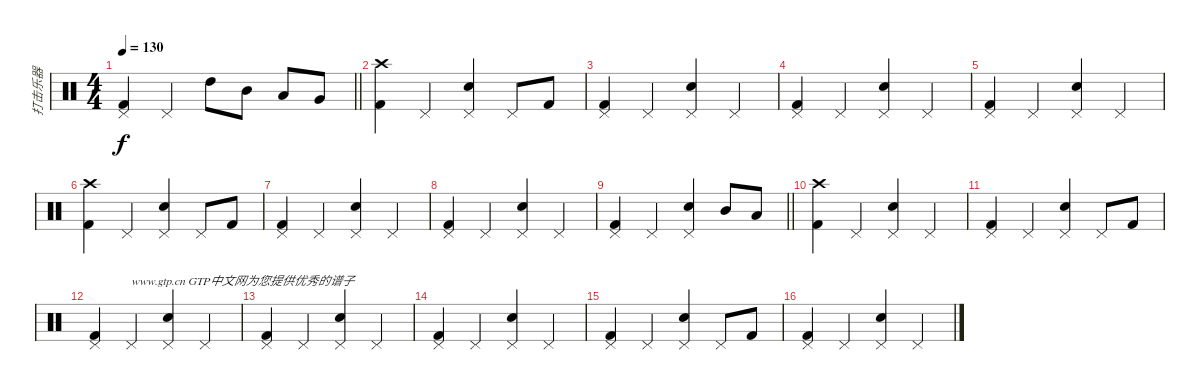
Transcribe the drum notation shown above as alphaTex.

\track ("打击乐器" "打击乐器") {instrument percussion}
\staff {score}
\articulation defaults
\ts (4 4)
\tempo 130
\clef neutral
\barLineRight lightlight
\ks c
("Pedal Hi-Hat (hit)" "Kick (hit) 2").4{dy f} "Pedal Hi-Hat (hit)".4 "High Tom (hit)".8 "Mid Tom (hit)".8 "Low Tom (hit)".8 "Very Low Tom (hit)".8 |
("Crash high (hit)" "Kick (hit) 2").4 "Pedal Hi-Hat (hit)".4 ("Pedal Hi-Hat (hit)" "Snare (hit) 2").4 "Pedal Hi-Hat (hit)".8 "Kick (hit) 2".8 |
("Pedal Hi-Hat (hit)" "Kick (hit) 2").4 "Pedal Hi-Hat (hit)".4 ("Pedal Hi-Hat (hit)" "Snare (hit) 2").4 "Pedal Hi-Hat (hit)".4 |
("Pedal Hi-Hat (hit)" "Kick (hit) 2").4 "Pedal Hi-Hat (hit)".4 ("Pedal Hi-Hat (hit)" "Snare (hit) 2").4 "Pedal Hi-Hat (hit)".4 |
("Pedal Hi-Hat (hit)" "Kick (hit) 2").4 "Pedal Hi-Hat (hit)".4 ("Pedal Hi-Hat (hit)" "Snare (hit) 2").4 "Pedal Hi-Hat (hit)".4 |
("Crash high (hit)" "Kick (hit) 2").4 "Pedal Hi-Hat (hit)".4 ("Pedal Hi-Hat (hit)" "Snare (hit) 2").4 "Pedal Hi-Hat (hit)".8 "Kick (hit) 2".8 |
("Pedal Hi-Hat (hit)" "Kick (hit) 2").4 "Pedal Hi-Hat (hit)".4 ("Pedal Hi-Hat (hit)" "Snare (hit) 2").4 "Pedal Hi-Hat (hit)".4 |
("Pedal Hi-Hat (hit)" "Kick (hit) 2").4 "Pedal Hi-Hat (hit)".4 ("Pedal Hi-Hat (hit)" "Snare (hit) 2").4 "Pedal Hi-Hat (hit)".4 |
\barLineRight lightlight
("Pedal Hi-Hat (hit)" "Kick (hit) 2").4 "Pedal Hi-Hat (hit)".4 ("Pedal Hi-Hat (hit)" "Snare (hit) 2").4 "Mid Tom (hit)".8 "Low Tom (hit)".8 |
("Crash high (hit)" "Kick (hit) 2").4 "Pedal Hi-Hat (hit)".4 ("Pedal Hi-Hat (hit)" "Snare (hit) 2").4 "Pedal Hi-Hat (hit)".4 |
("Pedal Hi-Hat (hit)" "Kick (hit) 2").4 "Pedal Hi-Hat (hit)".4 ("Pedal Hi-Hat (hit)" "Snare (hit) 2").4 "Pedal Hi-Hat (hit)".8 "Kick (hit) 2".8 |
("Pedal Hi-Hat (hit)" "Kick (hit) 2").4 "Pedal Hi-Hat (hit)".4{txt "www.gtp.cn GTP中文网为您提供优秀的谱子"} ("Pedal Hi-Hat (hit)" "Snare (hit) 2").4 "Pedal Hi-Hat (hit)".4 |
("Pedal Hi-Hat (hit)" "Kick (hit) 2").4 "Pedal Hi-Hat (hit)".4 ("Pedal Hi-Hat (hit)" "Snare (hit) 2").4 "Pedal Hi-Hat (hit)".4 |
("Pedal Hi-Hat (hit)" "Kick (hit) 2").4 "Pedal Hi-Hat (hit)".4 ("Pedal Hi-Hat (hit)" "Snare (hit) 2").4 "Pedal Hi-Hat (hit)".4 |
("Pedal Hi-Hat (hit)" "Kick (hit) 2").4 "Pedal Hi-Hat (hit)".4 ("Pedal Hi-Hat (hit)" "Snare (hit) 2").4 "Pedal Hi-Hat (hit)".8 "Kick (hit) 2".8 |
("Pedal Hi-Hat (hit)" "Kick (hit) 2").4 "Pedal Hi-Hat (hit)".4 ("Pedal Hi-Hat (hit)" "Snare (hit) 2").4 "Pedal Hi-Hat (hit)".4
